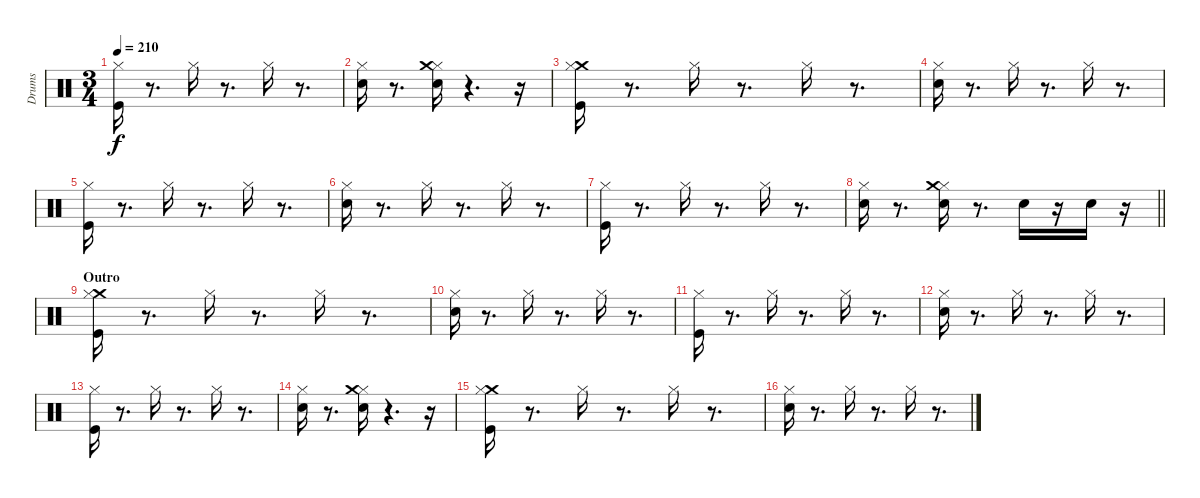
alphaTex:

\track ("Drums" "Drums") {instrument percussion}
\staff {score}
\articulation defaults
\ts (3 4)
\tempo 210
\clef neutral
\ks c
("Kick (hit)" "Hi-Hat (closed)").16{dy f} r.8{d} "Hi-Hat (closed)".16 r.8{d} "Hi-Hat (closed)".16 r.8{d} |
("Hi-Hat (closed)" "Electric Snare (hit)").16 r.8{d} ("Hi-Hat (closed)" "Electric Snare (hit)" "Crash medium (hit)").16 r.4{d} r.16 |
("Kick (hit)" "Crash medium (hit)" "Hi-Hat (closed)").16 r.8{d} "Hi-Hat (closed)".16 r.8{d} "Hi-Hat (closed)".16 r.8{d} |
("Hi-Hat (closed)" "Electric Snare (hit)").16 r.8{d} "Hi-Hat (closed)".16 r.8{d} "Hi-Hat (closed)".16 r.8{d} |
("Kick (hit)" "Hi-Hat (closed)").16 r.8{d} "Hi-Hat (closed)".16 r.8{d} "Hi-Hat (closed)".16 r.8{d} |
("Hi-Hat (closed)" "Electric Snare (hit)").16 r.8{d} "Hi-Hat (closed)".16 r.8{d} "Hi-Hat (closed)".16 r.8{d} |
("Kick (hit)" "Hi-Hat (closed)").16 r.8{d} "Hi-Hat (closed)".16 r.8{d} "Hi-Hat (closed)".16 r.8{d} |
\barLineRight lightlight
("Hi-Hat (closed)" "Electric Snare (hit)").16 r.8{d} ("Hi-Hat (closed)" "Electric Snare (hit)" "Crash medium (hit)").16 r.8{d} "Electric Snare (hit)".16 r.16 "Electric Snare (hit)".16 r.16 |
\section ("" "Outro")
("Kick (hit)" "Crash medium (hit)" "Hi-Hat (closed)").16 r.8{d} "Hi-Hat (closed)".16 r.8{d} "Hi-Hat (closed)".16 r.8{d} |
("Hi-Hat (closed)" "Electric Snare (hit)").16 r.8{d} "Hi-Hat (closed)".16 r.8{d} "Hi-Hat (closed)".16 r.8{d} |
("Kick (hit)" "Hi-Hat (closed)").16 r.8{d} "Hi-Hat (closed)".16 r.8{d} "Hi-Hat (closed)".16 r.8{d} |
("Hi-Hat (closed)" "Electric Snare (hit)").16 r.8{d} "Hi-Hat (closed)".16 r.8{d} "Hi-Hat (closed)".16 r.8{d} |
("Kick (hit)" "Hi-Hat (closed)").16 r.8{d} "Hi-Hat (closed)".16 r.8{d} "Hi-Hat (closed)".16 r.8{d} |
("Hi-Hat (closed)" "Electric Snare (hit)").16 r.8{d} ("Hi-Hat (closed)" "Electric Snare (hit)" "Crash medium (hit)").16 r.4{d} r.16 |
("Kick (hit)" "Crash medium (hit)" "Hi-Hat (closed)").16 r.8{d} "Hi-Hat (closed)".16 r.8{d} "Hi-Hat (closed)".16 r.8{d} |
("Hi-Hat (closed)" "Electric Snare (hit)").16 r.8{d} "Hi-Hat (closed)".16 r.8{d} "Hi-Hat (closed)".16 r.8{d}
